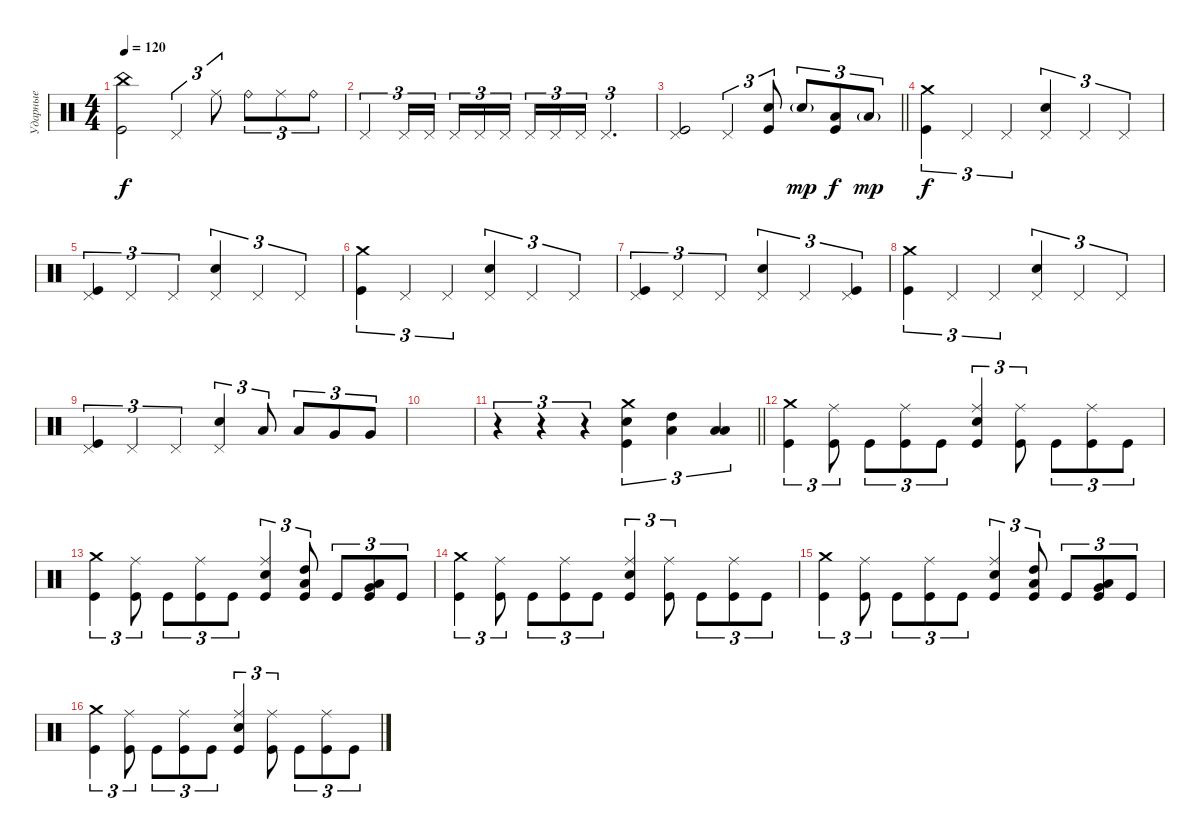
\track ("Ударные" "Ударные") {instrument percussion}
\staff {score}
\articulation defaults
\ts (4 4)
\tempo 120
\clef neutral
\ks c
("China (hit)" "Kick (hit)").2{dy f} "Pedal Hi-Hat (hit)".4{tu (3 2)} "Ride (middle)".8{tu (3 2)} "Ride (bell)".8{tu (3 2)} "Ride (middle)".8{tu (3 2)} "Ride (bell)".8{tu (3 2)} |
"Pedal Hi-Hat (hit)".4{tu (3 2)} "Pedal Hi-Hat (hit)".16{tu (3 2)} "Pedal Hi-Hat (hit)".16{tu (3 2)} "Pedal Hi-Hat (hit)".16{tu (3 2)} "Pedal Hi-Hat (hit)".16{tu (3 2)} "Pedal Hi-Hat (hit)".16{tu (3 2) beam splitsecondary} "Pedal Hi-Hat (hit)".16{tu (3 2)} "Pedal Hi-Hat (hit)".16{tu (3 2)} "Pedal Hi-Hat (hit)".16{tu (3 2)} "Pedal Hi-Hat (hit)".2{d tu (3 2)} |
\barLineRight lightlight
("Pedal Hi-Hat (hit)" "Kick (hit)").2 "Pedal Hi-Hat (hit)".4{tu (3 2)} ("Electric Snare (hit)" "Kick (hit)").8{tu (3 2)} "Electric Snare (hit)"{g}.8{tu (3 2) dy mp} ("Low Tom (hit)" "Kick (hit)").8{tu (3 2) dy f} "Low Tom (hit)"{g}.8{tu (3 2) dy mp} |
\section ("" " ")
("Crash medium (hit)" "Kick (hit)").4{tu (3 2) dy f} "Pedal Hi-Hat (hit)".4{tu (3 2)} "Pedal Hi-Hat (hit)".4{tu (3 2)} ("Pedal Hi-Hat (hit)" "Electric Snare (hit)").4{tu (3 2)} "Pedal Hi-Hat (hit)".4{tu (3 2)} "Pedal Hi-Hat (hit)".4{tu (3 2)} |
("Pedal Hi-Hat (hit)" "Kick (hit)").4{tu (3 2)} "Pedal Hi-Hat (hit)".4{tu (3 2)} "Pedal Hi-Hat (hit)".4{tu (3 2)} ("Pedal Hi-Hat (hit)" "Electric Snare (hit)").4{tu (3 2)} "Pedal Hi-Hat (hit)".4{tu (3 2)} "Pedal Hi-Hat (hit)".4{tu (3 2)} |
("Crash medium (hit)" "Kick (hit)").4{tu (3 2)} "Pedal Hi-Hat (hit)".4{tu (3 2)} "Pedal Hi-Hat (hit)".4{tu (3 2)} ("Pedal Hi-Hat (hit)" "Electric Snare (hit)").4{tu (3 2)} "Pedal Hi-Hat (hit)".4{tu (3 2)} "Pedal Hi-Hat (hit)".4{tu (3 2)} |
("Pedal Hi-Hat (hit)" "Kick (hit)").4{tu (3 2)} "Pedal Hi-Hat (hit)".4{tu (3 2)} "Pedal Hi-Hat (hit)".4{tu (3 2)} ("Pedal Hi-Hat (hit)" "Electric Snare (hit)").4{tu (3 2)} "Pedal Hi-Hat (hit)".4{tu (3 2)} ("Pedal Hi-Hat (hit)" "Kick (hit)").4{tu (3 2)} |
("Crash medium (hit)" "Kick (hit)").4{tu (3 2)} "Pedal Hi-Hat (hit)".4{tu (3 2)} "Pedal Hi-Hat (hit)".4{tu (3 2)} ("Pedal Hi-Hat (hit)" "Electric Snare (hit)").4{tu (3 2)} "Pedal Hi-Hat (hit)".4{tu (3 2)} "Pedal Hi-Hat (hit)".4{tu (3 2)} |
("Pedal Hi-Hat (hit)" "Kick (hit)").4{tu (3 2)} "Pedal Hi-Hat (hit)".4{tu (3 2)} "Pedal Hi-Hat (hit)".4{tu (3 2)} ("Pedal Hi-Hat (hit)" "Electric Snare (hit)").4{tu (3 2)} "Low Tom (hit)".8{tu (3 2)} "Low Tom (hit)".8{tu (3 2)} "Very Low Tom (hit)".8{tu (3 2)} "Very Low Tom (hit)".8{tu (3 2)} |
|
\barLineRight lightlight
r.4{tu (3 2)} r.4{tu (3 2)} r.4{tu (3 2)} ("Crash medium (hit)" "Kick (hit)" "Electric Snare (hit)").4{tu (3 2)} ("Low Tom (hit)" "High Tom (hit)").4{tu (3 2)} ("Low Floor Tom (hit)" "Low Tom (hit)").4{tu (3 2)} |
("Crash medium (hit)" "Kick (hit)").4{tu (3 2)} ("Ride (middle)" "Kick (hit)").8{tu (3 2)} "Kick (hit)".8{tu (3 2)} ("Ride (middle)" "Kick (hit)").8{tu (3 2)} "Kick (hit)".8{tu (3 2)} ("Ride (middle)" "Electric Snare (hit)" "Kick (hit)").4{tu (3 2)} ("Ride (middle)" "Kick (hit)").8{tu (3 2)} "Kick (hit)".8{tu (3 2)} ("Ride (middle)" "Kick (hit)").8{tu (3 2)} "Kick (hit)".8{tu (3 2)} |
("Crash medium (hit)" "Kick (hit)").4{tu (3 2)} ("Ride (middle)" "Kick (hit)").8{tu (3 2)} "Kick (hit)".8{tu (3 2)} ("Ride (middle)" "Kick (hit)").8{tu (3 2)} "Kick (hit)".8{tu (3 2)} ("Ride (middle)" "Electric Snare (hit)" "Kick (hit)").4{tu (3 2)} ("Low Tom (hit)" "High Tom (hit)" "Kick (hit)").8{tu (3 2)} "Kick (hit)".8{tu (3 2)} ("Very Low Tom (hit)" "Low Tom (hit)" "Kick (hit)").8{tu (3 2)} "Kick (hit)".8{tu (3 2)} |
("Crash medium (hit)" "Kick (hit)").4{tu (3 2)} ("Ride (middle)" "Kick (hit)").8{tu (3 2)} "Kick (hit)".8{tu (3 2)} ("Ride (middle)" "Kick (hit)").8{tu (3 2)} "Kick (hit)".8{tu (3 2)} ("Ride (middle)" "Electric Snare (hit)" "Kick (hit)").4{tu (3 2)} ("Ride (middle)" "Kick (hit)").8{tu (3 2)} "Kick (hit)".8{tu (3 2)} ("Ride (middle)" "Kick (hit)").8{tu (3 2)} "Kick (hit)".8{tu (3 2)} |
("Crash medium (hit)" "Kick (hit)").4{tu (3 2)} ("Ride (middle)" "Kick (hit)").8{tu (3 2)} "Kick (hit)".8{tu (3 2)} ("Ride (middle)" "Kick (hit)").8{tu (3 2)} "Kick (hit)".8{tu (3 2)} ("Ride (middle)" "Electric Snare (hit)" "Kick (hit)").4{tu (3 2)} ("Low Tom (hit)" "High Tom (hit)" "Kick (hit)").8{tu (3 2)} "Kick (hit)".8{tu (3 2)} ("Very Low Tom (hit)" "Low Tom (hit)" "Kick (hit)").8{tu (3 2)} "Kick (hit)".8{tu (3 2)} |
("Crash medium (hit)" "Kick (hit)").4{tu (3 2)} ("Ride (middle)" "Kick (hit)").8{tu (3 2)} "Kick (hit)".8{tu (3 2)} ("Ride (middle)" "Kick (hit)").8{tu (3 2)} "Kick (hit)".8{tu (3 2)} ("Ride (middle)" "Electric Snare (hit)" "Kick (hit)").4{tu (3 2)} ("Ride (middle)" "Kick (hit)").8{tu (3 2)} "Kick (hit)".8{tu (3 2)} ("Ride (middle)" "Kick (hit)").8{tu (3 2)} "Kick (hit)".8{tu (3 2)}
